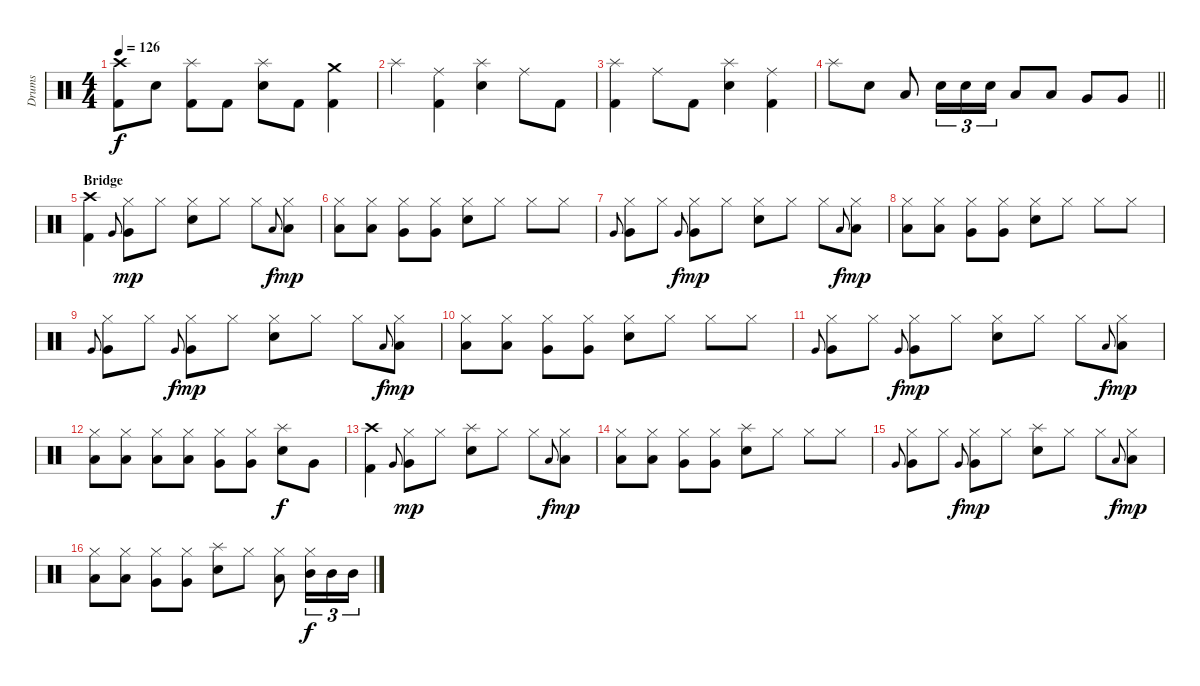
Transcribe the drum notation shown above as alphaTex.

\track ("Drums" "Drums") {instrument percussion}
\staff {score}
\articulation defaults
\ts (4 4)
\tempo 126
\clef neutral
\ks c
("Crash high (hit)" "Kick (hit) 2").8{dy f} "Snare (hit) 2".8 ("Splash (hit)" "Kick (hit) 2").8 "Kick (hit) 2".8 ("Splash (hit)" "Snare (hit) 2").8 "Kick (hit) 2".8 ("Crash medium (hit)" "Kick (hit) 2").4 |
"Splash (hit)".4 ("Ride (middle)" "Kick (hit) 2").4 ("Splash (hit)" "Snare (hit) 2").4 "Ride (middle)".8 "Kick (hit) 2".8 |
("Splash (hit)" "Kick (hit) 2").4 "Ride (middle)".8 "Kick (hit) 2".8 ("Splash (hit)" "Snare (hit) 2").4 ("Ride (middle)" "Kick (hit) 2").4 |
\barLineRight lightlight "Splash (hit)".8 "Snare (hit) 2".8 "Low Tom (hit)".8 "Snare (hit) 2".16{tu (3 2)} "Snare (hit) 2".16{tu (3 2)} "Snare (hit) 2".16{tu (3 2)} "Low Tom (hit)".8 "Low Tom (hit)".8 "Very Low Tom (hit)".8 "Very Low Tom (hit)".8
|
\section ("" "Bridge")
("Crash high (hit)" "Kick (hit) 2").4 "Very Low Tom (hit)".8{gr onbeat} ("Hi-Hat (closed)" "Very Low Tom (hit)").8{dy mp} "Hi-Hat (closed)".8 ("Hi-Hat (closed)" "Snare (hit) 2").8 "Hi-Hat (closed)".8 "Hi-Hat (closed)".8 "Low Tom (hit)".8{gr onbeat dy f} ("Hi-Hat (closed)" "Low Tom (hit)").8{dy mp} |
("Hi-Hat (closed)" "Low Tom (hit)").8 ("Hi-Hat (closed)" "Low Tom (hit)").8 ("Hi-Hat (closed)" "Very Low Tom (hit)").8 ("Hi-Hat (closed)" "Very Low Tom (hit)").8 ("Hi-Hat (closed)" "Snare (hit) 2").8 "Hi-Hat (closed)".8 "Hi-Hat (closed)".8 "Hi-Hat (closed)".8 |
"Very Low Tom (hit)".8{gr onbeat} ("Hi-Hat (closed)" "Very Low Tom (hit)").8 "Hi-Hat (closed)".8 "Very Low Tom (hit)".8{gr onbeat dy f} ("Hi-Hat (closed)" "Very Low Tom (hit)").8{dy mp} "Hi-Hat (closed)".8 ("Hi-Hat (closed)" "Snare (hit) 2").8 "Hi-Hat (closed)".8 "Hi-Hat (closed)".8 "Low Tom (hit)".8{gr onbeat dy f} ("Hi-Hat (closed)" "Low Tom (hit)").8{dy mp} |
("Hi-Hat (closed)" "Low Tom (hit)").8 ("Hi-Hat (closed)" "Low Tom (hit)").8 ("Hi-Hat (closed)" "Very Low Tom (hit)").8 ("Hi-Hat (closed)" "Very Low Tom (hit)").8 ("Hi-Hat (closed)" "Snare (hit) 2").8 "Hi-Hat (closed)".8 "Hi-Hat (closed)".8 "Hi-Hat (closed)".8 |
"Very Low Tom (hit)".8{gr onbeat} ("Hi-Hat (closed)" "Very Low Tom (hit)").8 "Hi-Hat (closed)".8 "Very Low Tom (hit)".8{gr onbeat dy f} ("Hi-Hat (closed)" "Very Low Tom (hit)").8{dy mp} "Hi-Hat (closed)".8 ("Hi-Hat (closed)" "Snare (hit) 2").8 "Hi-Hat (closed)".8 "Hi-Hat (closed)".8 "Low Tom (hit)".8{gr onbeat dy f} ("Hi-Hat (closed)" "Low Tom (hit)").8{dy mp} |
("Hi-Hat (closed)" "Low Tom (hit)").8 ("Hi-Hat (closed)" "Low Tom (hit)").8 ("Hi-Hat (closed)" "Very Low Tom (hit)").8 ("Hi-Hat (closed)" "Very Low Tom (hit)").8 ("Hi-Hat (closed)" "Snare (hit) 2").8 "Hi-Hat (closed)".8 "Hi-Hat (closed)".8 "Hi-Hat (closed)".8 |
"Very Low Tom (hit)".8{gr onbeat} ("Hi-Hat (closed)" "Very Low Tom (hit)").8 "Hi-Hat (closed)".8 "Very Low Tom (hit)".8{gr onbeat dy f} ("Hi-Hat (closed)" "Very Low Tom (hit)").8{dy mp} "Hi-Hat (closed)".8 ("Hi-Hat (closed)" "Snare (hit) 2").8 "Hi-Hat (closed)".8 "Hi-Hat (closed)".8 "Low Tom (hit)".8{gr onbeat dy f} ("Hi-Hat (closed)" "Low Tom (hit)").8{dy mp} |
("Hi-Hat (closed)" "Low Tom (hit)").8 ("Hi-Hat (closed)" "Low Tom (hit)").8 ("Hi-Hat (closed)" "Low Tom (hit)").8 ("Hi-Hat (closed)" "Low Tom (hit)").8 ("Hi-Hat (closed)" "Very Low Tom (hit)").8 ("Hi-Hat (closed)" "Very Low Tom (hit)").8 ("Splash (hit)" "Snare (hit) 2").8{dy f} "Very Low Tom (hit)".8 |
("Crash high (hit)" "Kick (hit) 2").4 "Very Low Tom (hit)".8{gr onbeat} ("Hi-Hat (closed)" "Very Low Tom (hit)").8{dy mp} "Hi-Hat (closed)".8 ("Splash (hit)" "Snare (hit) 2").8 "Hi-Hat (closed)".8 "Hi-Hat (closed)".8 "Low Tom (hit)".8{gr onbeat dy f} ("Hi-Hat (closed)" "Low Tom (hit)").8{dy mp} |
("Hi-Hat (closed)" "Low Tom (hit)").8 ("Hi-Hat (closed)" "Low Tom (hit)").8 ("Hi-Hat (closed)" "Very Low Tom (hit)").8 ("Hi-Hat (closed)" "Very Low Tom (hit)").8 ("Splash (hit)" "Snare (hit) 2").8 "Hi-Hat (closed)".8 "Hi-Hat (closed)".8 "Hi-Hat (closed)".8 |
"Very Low Tom (hit)".8{gr onbeat} ("Hi-Hat (closed)" "Very Low Tom (hit)").8 "Hi-Hat (closed)".8 "Very Low Tom (hit)".8{gr onbeat dy f} ("Hi-Hat (closed)" "Very Low Tom (hit)").8{dy mp} "Hi-Hat (closed)".8 ("Splash (hit)" "Snare (hit) 2").8 "Hi-Hat (closed)".8 "Hi-Hat (closed)".8 "Low Tom (hit)".8{gr onbeat dy f} ("Hi-Hat (closed)" "Low Tom (hit)").8{dy mp} |
("Hi-Hat (closed)" "Low Tom (hit)").8 ("Hi-Hat (closed)" "Low Tom (hit)").8 ("Hi-Hat (closed)" "Very Low Tom (hit)").8 ("Hi-Hat (closed)" "Very Low Tom (hit)").8 ("Splash (hit)" "Snare (hit) 2").8 "Hi-Hat (closed)".8 ("Hi-Hat (closed)" "Low Tom (hit)").8 ("Hi-Hat (closed)" "Mid Tom (hit)").16{tu (3 2) dy f} "Mid Tom (hit)".16{tu (3 2)} "Mid Tom (hit)".16{tu (3 2)}
